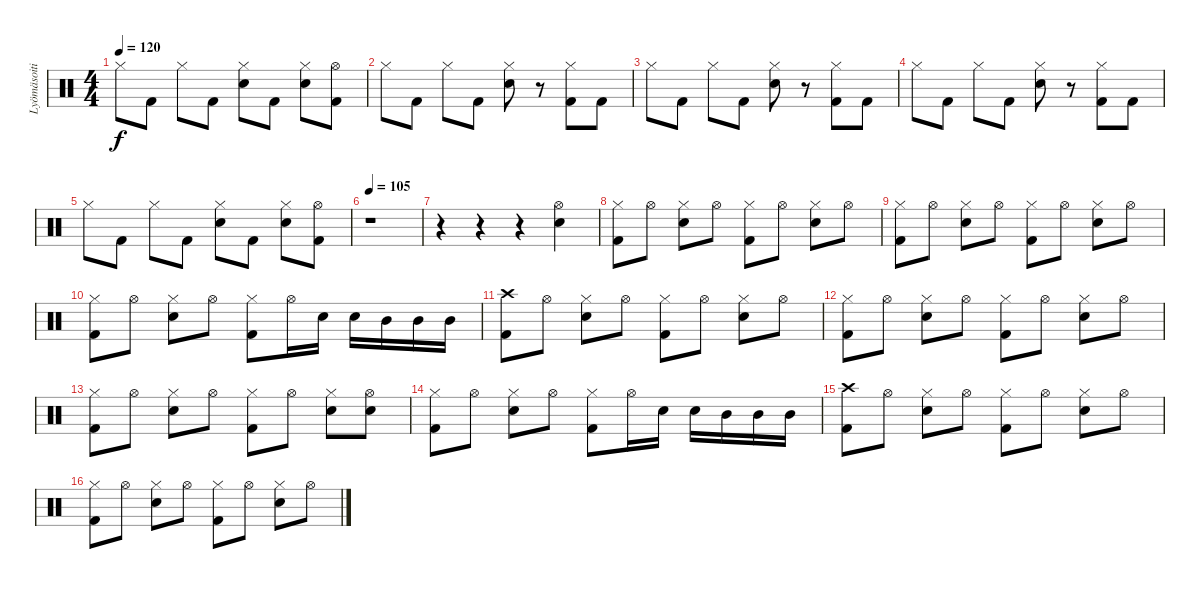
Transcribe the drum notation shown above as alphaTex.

\track ("Lyömäsoitin" "Lyömäsoiti") {instrument percussion}
\staff {score}
\articulation defaults
\ts (4 4)
\tempo 120
\clef neutral
\ks c "Hi-Hat (closed)".8{dy f} "Kick (hit) 2".8 "Hi-Hat (closed)".8 "Kick (hit) 2".8
("Hi-Hat (closed)" "Snare (hit) 2").8 "Kick (hit) 2".8 ("Hi-Hat (closed)" "Snare (hit) 2").8 ("Hi-Hat (open)" "Kick (hit) 2").8 |
"Hi-Hat (closed)".8 "Kick (hit) 2".8 "Hi-Hat (closed)".8 "Kick (hit) 2".8 ("Hi-Hat (closed)" "Snare (hit) 2").8 r.8 ("Hi-Hat (closed)" "Kick (hit) 2").8 "Kick (hit) 2".8 |
"Hi-Hat (closed)".8 "Kick (hit) 2".8 "Hi-Hat (closed)".8 "Kick (hit) 2".8 ("Hi-Hat (closed)" "Snare (hit) 2").8 r.8 ("Hi-Hat (closed)" "Kick (hit) 2").8 "Kick (hit) 2".8 |
"Hi-Hat (closed)".8 "Kick (hit) 2".8 "Hi-Hat (closed)".8 "Kick (hit) 2".8 ("Hi-Hat (closed)" "Snare (hit) 2").8 r.8 ("Hi-Hat (closed)" "Kick (hit) 2").8 "Kick (hit) 2".8 |
"Hi-Hat (closed)".8 "Kick (hit) 2".8 "Hi-Hat (closed)".8 "Kick (hit) 2".8 ("Hi-Hat (closed)" "Snare (hit) 2").8 "Kick (hit) 2".8 ("Hi-Hat (closed)" "Snare (hit) 2").8 ("Hi-Hat (open)" "Kick (hit) 2").8 |
\tempo 105
r.1 |
r.4 r.4 r.4 ("Hi-Hat (open)" "Snare (hit) 2").4 |
("Hi-Hat (closed)" "Kick (hit) 2").8 "Hi-Hat (open)".8 ("Hi-Hat (closed)" "Snare (hit) 2").8 "Hi-Hat (open)".8 ("Hi-Hat (closed)" "Kick (hit) 2").8 "Hi-Hat (open)".8 ("Hi-Hat (closed)" "Snare (hit) 2").8 "Hi-Hat (open)".8 |
("Hi-Hat (closed)" "Kick (hit) 2").8 "Hi-Hat (open)".8 ("Hi-Hat (closed)" "Snare (hit) 2").8 "Hi-Hat (open)".8 ("Hi-Hat (closed)" "Kick (hit) 2").8 "Hi-Hat (open)".8 ("Hi-Hat (closed)" "Snare (hit) 2").8 "Hi-Hat (open)".8 |
("Hi-Hat (closed)" "Kick (hit) 2").8 "Hi-Hat (open)".8 ("Hi-Hat (closed)" "Snare (hit) 2").8 "Hi-Hat (open)".8 ("Hi-Hat (closed)" "Kick (hit) 2").8 "Hi-Hat (open)".16 "Snare (hit) 2".16 "Snare (hit) 2".16 "Mid Tom (hit)".16 "Mid Tom (hit)".16 "Mid Tom (hit)".16 |
("Crash high (hit)" "Kick (hit) 2").8 "Hi-Hat (open)".8 ("Hi-Hat (closed)" "Snare (hit) 2").8 "Hi-Hat (open)".8 ("Hi-Hat (closed)" "Kick (hit) 2").8 "Hi-Hat (open)".8 ("Hi-Hat (closed)" "Snare (hit) 2").8 "Hi-Hat (open)".8 |
("Hi-Hat (closed)" "Kick (hit) 2").8 "Hi-Hat (open)".8 ("Hi-Hat (closed)" "Snare (hit) 2").8 "Hi-Hat (open)".8 ("Hi-Hat (closed)" "Kick (hit) 2").8 "Hi-Hat (open)".8 ("Hi-Hat (closed)" "Snare (hit) 2").8 "Hi-Hat (open)".8 |
("Hi-Hat (closed)" "Kick (hit) 2").8 "Hi-Hat (open)".8 ("Hi-Hat (closed)" "Snare (hit) 2").8 "Hi-Hat (open)".8 ("Hi-Hat (closed)" "Kick (hit) 2").8 "Hi-Hat (open)".8 ("Hi-Hat (closed)" "Snare (hit) 2").8 ("Hi-Hat (open)" "Snare (hit) 2").8 |
("Hi-Hat (closed)" "Kick (hit) 2").8 "Hi-Hat (open)".8 ("Hi-Hat (closed)" "Snare (hit) 2").8 "Hi-Hat (open)".8 ("Hi-Hat (closed)" "Kick (hit) 2").8 "Hi-Hat (open)".16 "Snare (hit) 2".16 "Snare (hit) 2".16 "Mid Tom (hit)".16 "Mid Tom (hit)".16 "Mid Tom (hit)".16 |
("Crash high (hit)" "Kick (hit) 2").8 "Hi-Hat (open)".8 ("Hi-Hat (closed)" "Snare (hit) 2").8 "Hi-Hat (open)".8 ("Hi-Hat (closed)" "Kick (hit) 2").8 "Hi-Hat (open)".8 ("Hi-Hat (closed)" "Snare (hit) 2").8 "Hi-Hat (open)".8 |
("Hi-Hat (closed)" "Kick (hit) 2").8 "Hi-Hat (open)".8 ("Hi-Hat (closed)" "Snare (hit) 2").8 "Hi-Hat (open)".8 ("Hi-Hat (closed)" "Kick (hit) 2").8 "Hi-Hat (open)".8 ("Hi-Hat (closed)" "Snare (hit) 2").8 "Hi-Hat (open)".8
